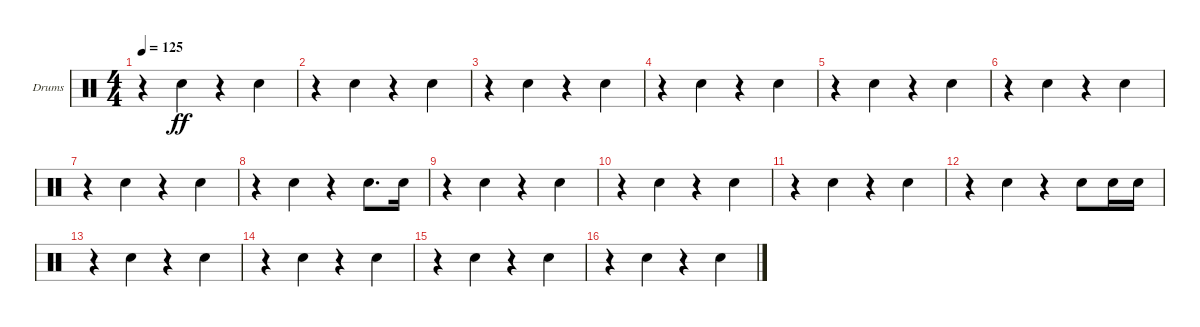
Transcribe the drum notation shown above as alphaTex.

\defaultSystemsLayout 4
\bracketExtendMode groupsimilarinstruments
\firstSystemTrackNameOrientation horizontal
\otherSystemsTrackNameOrientation horizontal
\track ("Drumkit" "Drums") {instrument percussion}
\staff {score}
\articulation defaults
\ts (4 4)
\tempo 125
\clef neutral
\scale
0.333333
\ks c
r.4{dy ff} "Snare (hit) 2".4 r.4 "Snare (hit) 2".4 |
\scale
0.333333 r.4 "Snare (hit) 2".4 r.4 "Snare (hit) 2".4 |
\scale
0.333333 r.4 "Snare (hit) 2".4 r.4 "Snare (hit) 2".4 |
\scale
0.333333 r.4 "Snare (hit) 2".4 r.4 "Snare (hit) 2".4 |
\scale
0.333333 r.4 "Snare (hit) 2".4 r.4 "Snare (hit) 2".4 |
\scale
0.333333 r.4 "Snare (hit) 2".4 r.4 "Snare (hit) 2".4 |
\scale
0.333333 r.4 "Snare (hit) 2".4 r.4 "Snare (hit) 2".4 |
\scale
0.333333 r.4 "Snare (hit) 2".4 r.4 "Snare (hit) 2".8{d} "Snare (hit) 2".16 |
\scale
0.333333 r.4 "Snare (hit) 2".4 r.4 "Snare (hit) 2".4 |
\scale
0.333333 r.4 "Snare (hit) 2".4 r.4 "Snare (hit) 2".4 |
\scale
0.333333 r.4 "Snare (hit) 2".4 r.4 "Snare (hit) 2".4 |
\scale
0.333333 r.4 "Snare (hit) 2".4 r.4 "Snare (hit) 2".8 "Snare (hit) 2".16 "Snare (hit) 2".16 |
\scale
0.333333 r.4 "Snare (hit) 2".4 r.4 "Snare (hit) 2".4 |
\scale
0.333333 r.4 "Snare (hit) 2".4 r.4 "Snare (hit) 2".4 |
\scale
0.333333 r.4 "Snare (hit) 2".4 r.4 "Snare (hit) 2".4 |
\scale
0.333333 r.4 "Snare (hit) 2".4 r.4 "Snare (hit) 2".4
